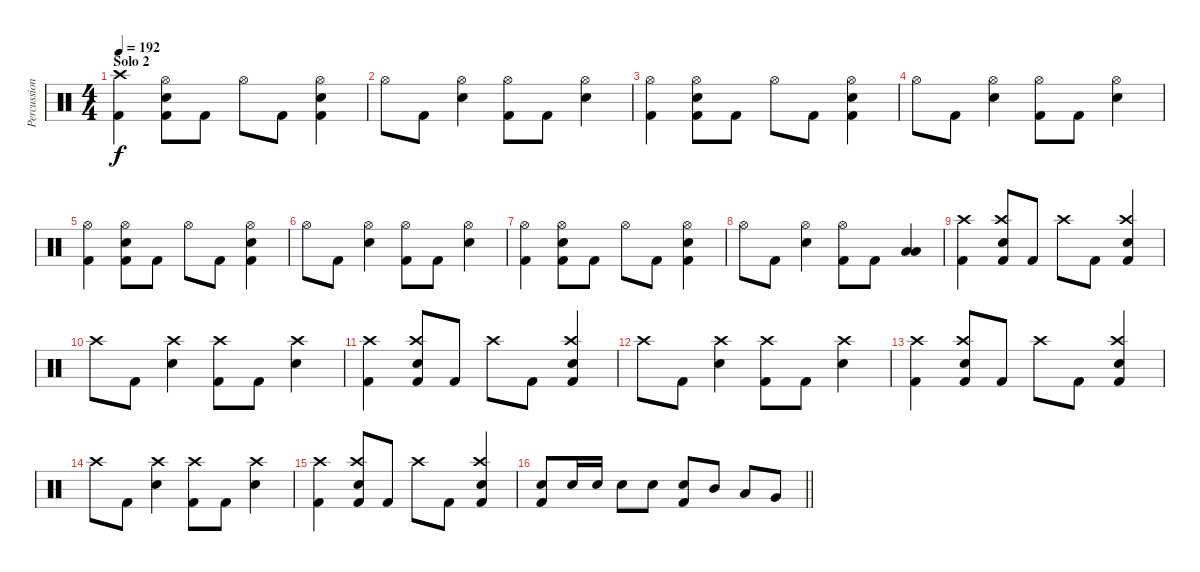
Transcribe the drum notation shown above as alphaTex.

\track ("Percussion" "Percussion") {instrument percussion}
\staff {score}
\articulation defaults
\ts (4 4)
\section ("" "Solo 2")
\tempo 192
\clef neutral
\ks aminor
("Kick (hit) 2" "Crash high (hit)").4{dy f} ("Kick (hit) 2" "Snare (hit) 2" "Hi-Hat (open)").8 "Kick (hit) 2".8 "Hi-Hat (open)".8 "Kick (hit) 2".8 ("Kick (hit) 2" "Snare (hit) 2" "Hi-Hat (open)").4 |
"Hi-Hat (open)".8 "Kick (hit) 2".8 ("Snare (hit) 2" "Hi-Hat (open)").4 ("Kick (hit) 2" "Hi-Hat (open)").8 "Kick (hit) 2".8 ("Snare (hit) 2" "Hi-Hat (open)").4 |
("Kick (hit) 2" "Hi-Hat (open)").4 ("Kick (hit) 2" "Snare (hit) 2" "Hi-Hat (open)").8 "Kick (hit) 2".8 "Hi-Hat (open)".8 "Kick (hit) 2".8 ("Kick (hit) 2" "Snare (hit) 2" "Hi-Hat (open)").4 |
"Hi-Hat (open)".8 "Kick (hit) 2".8 ("Snare (hit) 2" "Hi-Hat (open)").4 ("Kick (hit) 2" "Hi-Hat (open)").8 "Kick (hit) 2".8 ("Snare (hit) 2" "Hi-Hat (open)").4 |
("Kick (hit) 2" "Hi-Hat (open)").4 ("Kick (hit) 2" "Snare (hit) 2" "Hi-Hat (open)").8 "Kick (hit) 2".8 "Hi-Hat (open)".8 "Kick (hit) 2".8 ("Kick (hit) 2" "Snare (hit) 2" "Hi-Hat (open)").4 |
"Hi-Hat (open)".8 "Kick (hit) 2".8 ("Snare (hit) 2" "Hi-Hat (open)").4 ("Kick (hit) 2" "Hi-Hat (open)").8 "Kick (hit) 2".8 ("Snare (hit) 2" "Hi-Hat (open)").4 |
("Kick (hit) 2" "Hi-Hat (open)").4 ("Kick (hit) 2" "Snare (hit) 2" "Hi-Hat (open)").8 "Kick (hit) 2".8 "Hi-Hat (open)".8 "Kick (hit) 2".8 ("Kick (hit) 2" "Snare (hit) 2" "Hi-Hat (open)").4 |
"Hi-Hat (open)".8 "Kick (hit) 2".8 ("Snare (hit) 2" "Hi-Hat (open)").4 ("Kick (hit) 2" "Hi-Hat (open)").8 "Kick (hit) 2".8 ("Low Tom (hit)" "Low Floor Tom (hit)").4 |
("Kick (hit) 2" "Crash high (hit)").4 ("Kick (hit) 2" "Snare (hit) 2" "Crash high (hit)").8 "Kick (hit) 2".8 "Crash high (hit)".8 "Kick (hit) 2".8 ("Kick (hit) 2" "Snare (hit) 2" "Crash high (hit)").4 |
"Crash high (hit)".8 "Kick (hit) 2".8 ("Snare (hit) 2" "Crash high (hit)").4 ("Kick (hit) 2" "Crash high (hit)").8 "Kick (hit) 2".8 ("Snare (hit) 2" "Crash high (hit)").4 |
("Kick (hit) 2" "Crash high (hit)").4 ("Kick (hit) 2" "Snare (hit) 2" "Crash high (hit)").8 "Kick (hit) 2".8 "Crash high (hit)".8 "Kick (hit) 2".8 ("Kick (hit) 2" "Snare (hit) 2" "Crash high (hit)").4 |
"Crash high (hit)".8 "Kick (hit) 2".8 ("Snare (hit) 2" "Crash high (hit)").4 ("Kick (hit) 2" "Crash high (hit)").8 "Kick (hit) 2".8 ("Snare (hit) 2" "Crash high (hit)").4 |
("Kick (hit) 2" "Crash high (hit)").4 ("Kick (hit) 2" "Snare (hit) 2" "Crash high (hit)").8 "Kick (hit) 2".8 "Crash high (hit)".8 "Kick (hit) 2".8 ("Kick (hit) 2" "Snare (hit) 2" "Crash high (hit)").4 |
"Crash high (hit)".8 "Kick (hit) 2".8 ("Snare (hit) 2" "Crash high (hit)").4 ("Kick (hit) 2" "Crash high (hit)").8 "Kick (hit) 2".8 ("Snare (hit) 2" "Crash high (hit)").4 |
("Kick (hit) 2" "Crash high (hit)").4 ("Kick (hit) 2" "Snare (hit) 2" "Crash high (hit)").8 "Kick (hit) 2".8 "Crash high (hit)".8 "Kick (hit) 2".8 ("Kick (hit) 2" "Snare (hit) 2" "Crash high (hit)").4 |
\barLineRight lightlight
("Kick (hit) 2" "Snare (hit) 2").8 "Snare (hit) 2".16 "Snare (hit) 2".16 "Snare (hit) 2".8 "Snare (hit) 2".8 ("Kick (hit) 2" "Snare (hit) 2").8 "Mid Tom (hit)".8 "Low Tom (hit)".8 "Very Low Tom (hit)".8
